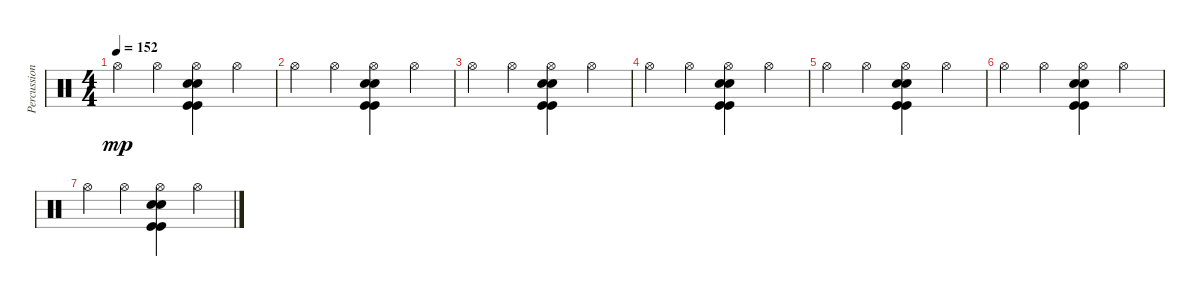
\track ("Percussion" "Percussion") {instrument percussion}
\staff {score}
\articulation defaults
\ts (4 4)
\tempo 152
\clef neutral
\ks c "Hi-Hat (open)".4{dy mp} "Hi-Hat (open)".4
("Hi-Hat (open)" "Kick (hit)" "Snare (hit) 2" "Electric Snare (hit)" "Kick (hit)").4 "Hi-Hat (open)".4 |
"Hi-Hat (open)".4 "Hi-Hat (open)".4 ("Hi-Hat (open)" "Kick (hit)" "Snare (hit) 2" "Electric Snare (hit)" "Kick (hit)").4 "Hi-Hat (open)".4 |
"Hi-Hat (open)".4 "Hi-Hat (open)".4 ("Hi-Hat (open)" "Kick (hit)" "Snare (hit) 2" "Electric Snare (hit)" "Kick (hit)").4 "Hi-Hat (open)".4 |
"Hi-Hat (open)".4 "Hi-Hat (open)".4 ("Hi-Hat (open)" "Kick (hit)" "Snare (hit) 2" "Electric Snare (hit)" "Kick (hit)").4 "Hi-Hat (open)".4 |
"Hi-Hat (open)".4 "Hi-Hat (open)".4 ("Hi-Hat (open)" "Kick (hit)" "Snare (hit) 2" "Electric Snare (hit)" "Kick (hit)").4 "Hi-Hat (open)".4 |
"Hi-Hat (open)".4 "Hi-Hat (open)".4 ("Hi-Hat (open)" "Kick (hit)" "Snare (hit) 2" "Electric Snare (hit)" "Kick (hit)").4 "Hi-Hat (open)".4 |
"Hi-Hat (open)".4 "Hi-Hat (open)".4 ("Hi-Hat (open)" "Kick (hit)" "Snare (hit) 2" "Electric Snare (hit)" "Kick (hit)").4 "Hi-Hat (open)".4
